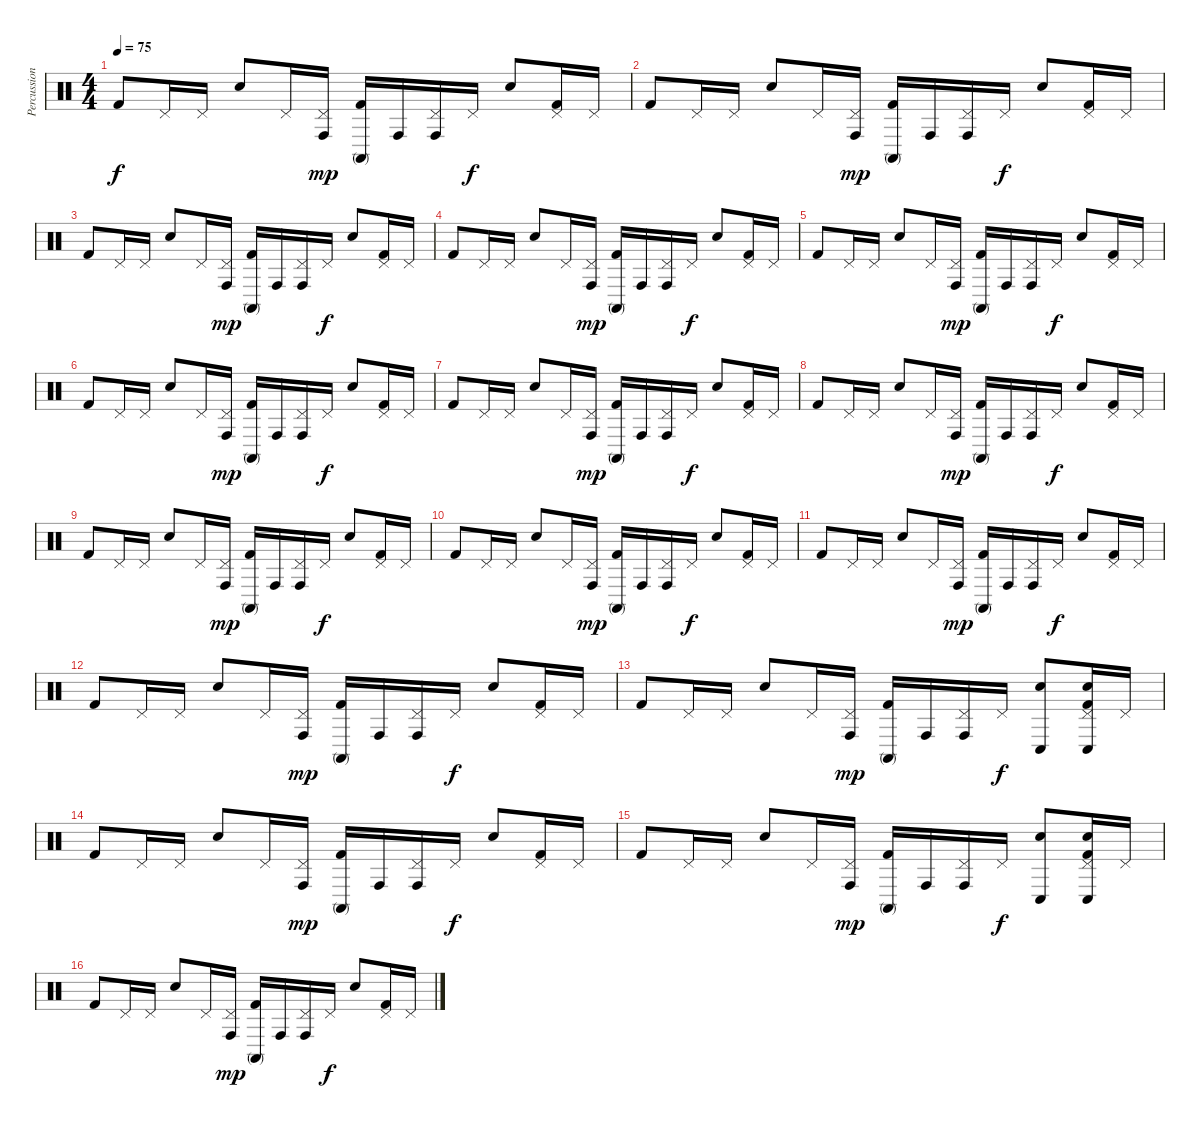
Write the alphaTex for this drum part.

\track ("Percussion" "Percussion") {instrument percussion}
\staff {score}
\articulation defaults
\ts (4 4)
\tempo 75
\clef neutral
\ks c "Kick (hit) 2".8{dy f} "Pedal Hi-Hat (hit)".16 "Pedal Hi-Hat (hit)".16 "Snare (hit) 2".8 "Pedal Hi-Hat (hit)".16
("Pedal Hi-Hat (hit)" "Conga high (hit)").16{dy mp} ("Conga high (mute)" "Kick (hit) 2").16 "Conga high (hit)".16 ("Pedal Hi-Hat (hit)" "Conga high (hit)").16 "Pedal Hi-Hat (hit)".16{dy f} "Snare (hit) 2".8 ("Pedal Hi-Hat (hit)" "Kick (hit) 2").16 "Pedal Hi-Hat (hit)".16 |
"Kick (hit) 2".8 "Pedal Hi-Hat (hit)".16 "Pedal Hi-Hat (hit)".16 "Snare (hit) 2".8 "Pedal Hi-Hat (hit)".16 ("Pedal Hi-Hat (hit)" "Conga high (hit)").16{dy mp} ("Conga high (mute)" "Kick (hit) 2").16 "Conga high (hit)".16 ("Pedal Hi-Hat (hit)" "Conga high (hit)").16 "Pedal Hi-Hat (hit)".16{dy f} "Snare (hit) 2".8 ("Pedal Hi-Hat (hit)" "Kick (hit) 2").16 "Pedal Hi-Hat (hit)".16 |
"Kick (hit) 2".8 "Pedal Hi-Hat (hit)".16 "Pedal Hi-Hat (hit)".16 "Snare (hit) 2".8 "Pedal Hi-Hat (hit)".16 ("Pedal Hi-Hat (hit)" "Conga high (hit)").16{dy mp} ("Conga high (mute)" "Kick (hit) 2").16 "Conga high (hit)".16 ("Pedal Hi-Hat (hit)" "Conga high (hit)").16 "Pedal Hi-Hat (hit)".16{dy f} "Snare (hit) 2".8 ("Pedal Hi-Hat (hit)" "Kick (hit) 2").16 "Pedal Hi-Hat (hit)".16 |
"Kick (hit) 2".8 "Pedal Hi-Hat (hit)".16 "Pedal Hi-Hat (hit)".16 "Snare (hit) 2".8 "Pedal Hi-Hat (hit)".16 ("Pedal Hi-Hat (hit)" "Conga high (hit)").16{dy mp} ("Conga high (mute)" "Kick (hit) 2").16 "Conga high (hit)".16 ("Pedal Hi-Hat (hit)" "Conga high (hit)").16 "Pedal Hi-Hat (hit)".16{dy f} "Snare (hit) 2".8 ("Pedal Hi-Hat (hit)" "Kick (hit) 2").16 "Pedal Hi-Hat (hit)".16 |
"Kick (hit) 2".8 "Pedal Hi-Hat (hit)".16 "Pedal Hi-Hat (hit)".16 "Snare (hit) 2".8 "Pedal Hi-Hat (hit)".16 ("Pedal Hi-Hat (hit)" "Conga high (hit)").16{dy mp} ("Conga high (mute)" "Kick (hit) 2").16 "Conga high (hit)".16 ("Pedal Hi-Hat (hit)" "Conga high (hit)").16 "Pedal Hi-Hat (hit)".16{dy f} "Snare (hit) 2".8 ("Pedal Hi-Hat (hit)" "Kick (hit) 2").16 "Pedal Hi-Hat (hit)".16 |
"Kick (hit) 2".8 "Pedal Hi-Hat (hit)".16 "Pedal Hi-Hat (hit)".16 "Snare (hit) 2".8 "Pedal Hi-Hat (hit)".16 ("Pedal Hi-Hat (hit)" "Conga high (hit)").16{dy mp} ("Conga high (mute)" "Kick (hit) 2").16 "Conga high (hit)".16 ("Pedal Hi-Hat (hit)" "Conga high (hit)").16 "Pedal Hi-Hat (hit)".16{dy f} "Snare (hit) 2".8 ("Pedal Hi-Hat (hit)" "Kick (hit) 2").16 "Pedal Hi-Hat (hit)".16 |
"Kick (hit) 2".8 "Pedal Hi-Hat (hit)".16 "Pedal Hi-Hat (hit)".16 "Snare (hit) 2".8 "Pedal Hi-Hat (hit)".16 ("Pedal Hi-Hat (hit)" "Conga high (hit)").16{dy mp} ("Conga high (mute)" "Kick (hit) 2").16 "Conga high (hit)".16 ("Pedal Hi-Hat (hit)" "Conga high (hit)").16 "Pedal Hi-Hat (hit)".16{dy f} "Snare (hit) 2".8 ("Pedal Hi-Hat (hit)" "Kick (hit) 2").16 "Pedal Hi-Hat (hit)".16 |
"Kick (hit) 2".8 "Pedal Hi-Hat (hit)".16 "Pedal Hi-Hat (hit)".16 "Snare (hit) 2".8 "Pedal Hi-Hat (hit)".16 ("Pedal Hi-Hat (hit)" "Conga high (hit)").16{dy mp} ("Conga high (mute)" "Kick (hit) 2").16 "Conga high (hit)".16 ("Pedal Hi-Hat (hit)" "Conga high (hit)").16 "Pedal Hi-Hat (hit)".16{dy f} "Snare (hit) 2".8 ("Pedal Hi-Hat (hit)" "Kick (hit) 2").16 "Pedal Hi-Hat (hit)".16 |
"Kick (hit) 2".8 "Pedal Hi-Hat (hit)".16 "Pedal Hi-Hat (hit)".16 "Snare (hit) 2".8 "Pedal Hi-Hat (hit)".16 ("Pedal Hi-Hat (hit)" "Conga high (hit)").16{dy mp} ("Conga high (mute)" "Kick (hit) 2").16 "Conga high (hit)".16 ("Pedal Hi-Hat (hit)" "Conga high (hit)").16 "Pedal Hi-Hat (hit)".16{dy f} "Snare (hit) 2".8 ("Pedal Hi-Hat (hit)" "Kick (hit) 2").16 "Pedal Hi-Hat (hit)".16 |
"Kick (hit) 2".8 "Pedal Hi-Hat (hit)".16 "Pedal Hi-Hat (hit)".16 "Snare (hit) 2".8 "Pedal Hi-Hat (hit)".16 ("Pedal Hi-Hat (hit)" "Conga high (hit)").16{dy mp} ("Conga high (mute)" "Kick (hit) 2").16 "Conga high (hit)".16 ("Pedal Hi-Hat (hit)" "Conga high (hit)").16 "Pedal Hi-Hat (hit)".16{dy f} "Snare (hit) 2".8 ("Pedal Hi-Hat (hit)" "Kick (hit) 2").16 "Pedal Hi-Hat (hit)".16 |
"Kick (hit) 2".8 "Pedal Hi-Hat (hit)".16 "Pedal Hi-Hat (hit)".16 "Snare (hit) 2".8 "Pedal Hi-Hat (hit)".16 ("Pedal Hi-Hat (hit)" "Conga high (hit)").16{dy mp} ("Conga high (mute)" "Kick (hit) 2").16 "Conga high (hit)".16 ("Pedal Hi-Hat (hit)" "Conga high (hit)").16 "Pedal Hi-Hat (hit)".16{dy f} "Snare (hit) 2".8 ("Pedal Hi-Hat (hit)" "Kick (hit) 2").16 "Pedal Hi-Hat (hit)".16 |
"Kick (hit) 2".8 "Pedal Hi-Hat (hit)".16 "Pedal Hi-Hat (hit)".16 "Snare (hit) 2".8 "Pedal Hi-Hat (hit)".16 ("Pedal Hi-Hat (hit)" "Conga high (hit)").16{dy mp} ("Conga high (mute)" "Kick (hit) 2").16 "Conga high (hit)".16 ("Pedal Hi-Hat (hit)" "Conga high (hit)").16 "Pedal Hi-Hat (hit)".16{dy f} "Snare (hit) 2".8 ("Pedal Hi-Hat (hit)" "Kick (hit) 2").16 "Pedal Hi-Hat (hit)".16 |
"Kick (hit) 2".8 "Pedal Hi-Hat (hit)".16 "Pedal Hi-Hat (hit)".16 "Snare (hit) 2".8 "Pedal Hi-Hat (hit)".16 ("Pedal Hi-Hat (hit)" "Conga high (hit)").16{dy mp} ("Conga high (mute)" "Kick (hit) 2").16 "Conga high (hit)".16 ("Pedal Hi-Hat (hit)" "Conga high (hit)").16 "Pedal Hi-Hat (hit)".16{dy f} ("Snare (hit) 2" "Conga low (hit)").8 ("Pedal Hi-Hat (hit)" "Snare (hit) 2" "Conga low (hit)" "Kick (hit) 2").16 "Pedal Hi-Hat (hit)".16 |
"Kick (hit) 2".8 "Pedal Hi-Hat (hit)".16 "Pedal Hi-Hat (hit)".16 "Snare (hit) 2".8 "Pedal Hi-Hat (hit)".16 ("Pedal Hi-Hat (hit)" "Conga high (hit)").16{dy mp} ("Conga high (mute)" "Kick (hit) 2").16 "Conga high (hit)".16 ("Pedal Hi-Hat (hit)" "Conga high (hit)").16 "Pedal Hi-Hat (hit)".16{dy f} "Snare (hit) 2".8 ("Pedal Hi-Hat (hit)" "Kick (hit) 2").16 "Pedal Hi-Hat (hit)".16 |
"Kick (hit) 2".8 "Pedal Hi-Hat (hit)".16 "Pedal Hi-Hat (hit)".16 "Snare (hit) 2".8 "Pedal Hi-Hat (hit)".16 ("Pedal Hi-Hat (hit)" "Conga high (hit)").16{dy mp} ("Conga high (mute)" "Kick (hit) 2").16 "Conga high (hit)".16 ("Pedal Hi-Hat (hit)" "Conga high (hit)").16 "Pedal Hi-Hat (hit)".16{dy f} ("Snare (hit) 2" "Conga low (hit)").8 ("Pedal Hi-Hat (hit)" "Snare (hit) 2" "Conga low (hit)" "Kick (hit) 2").16 "Pedal Hi-Hat (hit)".16 |
"Kick (hit) 2".8 "Pedal Hi-Hat (hit)".16 "Pedal Hi-Hat (hit)".16 "Snare (hit) 2".8 "Pedal Hi-Hat (hit)".16 ("Pedal Hi-Hat (hit)" "Conga high (hit)").16{dy mp} ("Conga high (mute)" "Kick (hit) 2").16 "Conga high (hit)".16 ("Pedal Hi-Hat (hit)" "Conga high (hit)").16 "Pedal Hi-Hat (hit)".16{dy f} "Snare (hit) 2".8 ("Pedal Hi-Hat (hit)" "Kick (hit) 2").16 "Pedal Hi-Hat (hit)".16
